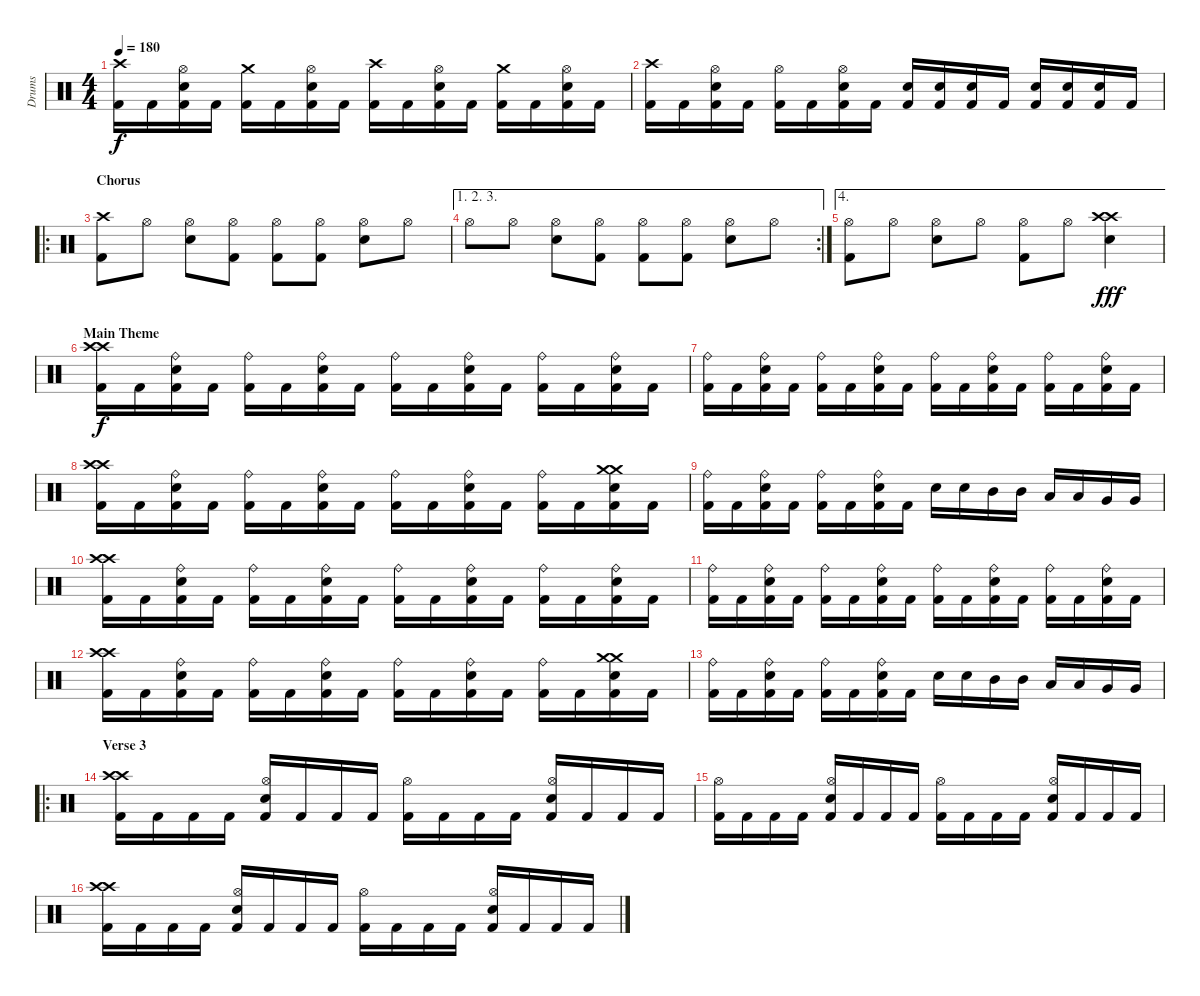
\track ("Drums" "Drums") {instrument percussion}
\staff {score}
\articulation defaults
\ts (4 4)
\tempo 180
\clef neutral
\ks c
("Crash high (hit)" "Kick (hit) 2").16{dy f} "Kick (hit) 2".16 ("Hi-Hat (open)" "Snare (hit) 2" "Kick (hit) 2").16 "Kick (hit) 2".16 ("Crash medium (hit)" "Kick (hit) 2").16 "Kick (hit) 2".16 ("Hi-Hat (open)" "Snare (hit) 2" "Kick (hit) 2").16 "Kick (hit) 2".16 ("Crash high (hit)" "Kick (hit) 2").16 "Kick (hit) 2".16 ("Hi-Hat (open)" "Snare (hit) 2" "Kick (hit) 2").16 "Kick (hit) 2".16 ("Crash medium (hit)" "Kick (hit) 2").16 "Kick (hit) 2".16 ("Hi-Hat (open)" "Snare (hit) 2" "Kick (hit) 2").16 "Kick (hit) 2".16 |
("Crash high (hit)" "Kick (hit) 2").16 "Kick (hit) 2".16 ("Hi-Hat (open)" "Snare (hit) 2" "Kick (hit) 2").16 "Kick (hit) 2".16 ("Hi-Hat (open)" "Kick (hit) 2").16 "Kick (hit) 2".16 ("Hi-Hat (open)" "Snare (hit) 2" "Kick (hit) 2").16 "Kick (hit) 2".16 ("Snare (hit) 2" "Kick (hit) 2").16 ("Snare (hit) 2" "Kick (hit) 2").16 ("Snare (hit) 2" "Kick (hit) 2").16 "Kick (hit) 2".16 ("Snare (hit) 2" "Kick (hit) 2").16 ("Snare (hit) 2" "Kick (hit) 2").16 ("Snare (hit) 2" "Kick (hit) 2").16 "Kick (hit) 2".16 |
\ro
\section ("" "Chorus")
("Crash high (hit)" "Kick (hit) 2").8 "Hi-Hat (open)".8 ("Hi-Hat (open)" "Snare (hit) 2").8 ("Hi-Hat (open)" "Kick (hit) 2").8 ("Hi-Hat (open)" "Kick (hit) 2").8 ("Hi-Hat (open)" "Kick (hit) 2").8 ("Hi-Hat (open)" "Snare (hit) 2").8 "Hi-Hat (open)".8 |
\ae (1 2 3)
\rc 2 "Hi-Hat (open)".8 "Hi-Hat (open)".8
("Hi-Hat (open)" "Snare (hit) 2").8 ("Hi-Hat (open)" "Kick (hit) 2").8 ("Hi-Hat (open)" "Kick (hit) 2").8 ("Hi-Hat (open)" "Kick (hit) 2").8 ("Hi-Hat (open)" "Snare (hit) 2").8 "Hi-Hat (open)".8 |
\ae 4
("Hi-Hat (open)" "Kick (hit) 2").8 "Hi-Hat (open)".8 ("Hi-Hat (open)" "Snare (hit) 2").8 "Hi-Hat (open)".8 ("Hi-Hat (open)" "Kick (hit) 2").8 "Hi-Hat (open)".8 ("Crash high (hit)" "Crash high (hit)" "Snare (hit) 2").4{dy fff} |
\section ("" "Main Theme")
("Crash high (hit)" "Crash high (hit)" "Kick (hit) 2").16{dy f} "Kick (hit) 2".16 ("Ride (bell)" "Snare (hit) 2" "Kick (hit) 2").16 "Kick (hit) 2".16 ("Ride (bell)" "Kick (hit) 2").16 "Kick (hit) 2".16 ("Ride (bell)" "Snare (hit) 2" "Kick (hit) 2").16 "Kick (hit) 2".16 ("Ride (bell)" "Kick (hit) 2").16 "Kick (hit) 2".16 ("Ride (bell)" "Snare (hit) 2" "Kick (hit) 2").16 "Kick (hit) 2".16 ("Ride (bell)" "Kick (hit) 2").16 "Kick (hit) 2".16 ("Ride (bell)" "Snare (hit) 2" "Kick (hit) 2").16 "Kick (hit) 2".16 |
("Ride (bell)" "Kick (hit) 2").16 "Kick (hit) 2".16 ("Ride (bell)" "Snare (hit) 2" "Kick (hit) 2").16 "Kick (hit) 2".16 ("Ride (bell)" "Kick (hit) 2").16 "Kick (hit) 2".16 ("Ride (bell)" "Snare (hit) 2" "Kick (hit) 2").16 "Kick (hit) 2".16 ("Ride (bell)" "Kick (hit) 2").16 "Kick (hit) 2".16 ("Ride (bell)" "Snare (hit) 2" "Kick (hit) 2").16 "Kick (hit) 2".16 ("Ride (bell)" "Kick (hit) 2").16 "Kick (hit) 2".16 ("Ride (bell)" "Snare (hit) 2" "Kick (hit) 2").16 "Kick (hit) 2".16 |
("Crash high (hit)" "Crash high (hit)" "Kick (hit) 2").16 "Kick (hit) 2".16 ("Ride (bell)" "Snare (hit) 2" "Kick (hit) 2").16 "Kick (hit) 2".16 ("Ride (bell)" "Kick (hit) 2").16 "Kick (hit) 2".16 ("Ride (bell)" "Snare (hit) 2" "Kick (hit) 2").16 "Kick (hit) 2".16 ("Ride (bell)" "Kick (hit) 2").16 "Kick (hit) 2".16 ("Ride (bell)" "Snare (hit) 2" "Kick (hit) 2").16 "Kick (hit) 2".16 ("Ride (bell)" "Kick (hit) 2").16 "Kick (hit) 2".16 ("Crash medium (hit)" "Crash medium (hit)" "Snare (hit) 2" "Kick (hit) 2").16 "Kick (hit) 2".16 |
("Ride (bell)" "Kick (hit) 2").16 "Kick (hit) 2".16 ("Ride (bell)" "Snare (hit) 2" "Kick (hit) 2").16 "Kick (hit) 2".16 ("Ride (bell)" "Kick (hit) 2").16 "Kick (hit) 2".16 ("Ride (bell)" "Snare (hit) 2" "Kick (hit) 2").16 "Kick (hit) 2".16 "Snare (hit) 2".16 "Snare (hit) 2".16 "Mid Tom (hit)".16 "Mid Tom (hit)".16 "Low Tom (hit)".16 "Low Tom (hit)".16 "Very Low Tom (hit)".16 "Very Low Tom (hit)".16 |
("Crash high (hit)" "Crash high (hit)" "Kick (hit) 2").16 "Kick (hit) 2".16 ("Ride (bell)" "Snare (hit) 2" "Kick (hit) 2").16 "Kick (hit) 2".16 ("Ride (bell)" "Kick (hit) 2").16 "Kick (hit) 2".16 ("Ride (bell)" "Snare (hit) 2" "Kick (hit) 2").16 "Kick (hit) 2".16 ("Ride (bell)" "Kick (hit) 2").16 "Kick (hit) 2".16 ("Ride (bell)" "Snare (hit) 2" "Kick (hit) 2").16 "Kick (hit) 2".16 ("Ride (bell)" "Kick (hit) 2").16 "Kick (hit) 2".16 ("Ride (bell)" "Snare (hit) 2" "Kick (hit) 2").16 "Kick (hit) 2".16 |
("Ride (bell)" "Kick (hit) 2").16 "Kick (hit) 2".16 ("Ride (bell)" "Snare (hit) 2" "Kick (hit) 2").16 "Kick (hit) 2".16 ("Ride (bell)" "Kick (hit) 2").16 "Kick (hit) 2".16 ("Ride (bell)" "Snare (hit) 2" "Kick (hit) 2").16 "Kick (hit) 2".16 ("Ride (bell)" "Kick (hit) 2").16 "Kick (hit) 2".16 ("Ride (bell)" "Snare (hit) 2" "Kick (hit) 2").16 "Kick (hit) 2".16 ("Ride (bell)" "Kick (hit) 2").16 "Kick (hit) 2".16 ("Ride (bell)" "Snare (hit) 2" "Kick (hit) 2").16 "Kick (hit) 2".16 |
("Crash high (hit)" "Crash high (hit)" "Kick (hit) 2").16 "Kick (hit) 2".16 ("Ride (bell)" "Snare (hit) 2" "Kick (hit) 2").16 "Kick (hit) 2".16 ("Ride (bell)" "Kick (hit) 2").16 "Kick (hit) 2".16 ("Ride (bell)" "Snare (hit) 2" "Kick (hit) 2").16 "Kick (hit) 2".16 ("Ride (bell)" "Kick (hit) 2").16 "Kick (hit) 2".16 ("Ride (bell)" "Snare (hit) 2" "Kick (hit) 2").16 "Kick (hit) 2".16 ("Ride (bell)" "Kick (hit) 2").16 "Kick (hit) 2".16 ("Crash medium (hit)" "Crash medium (hit)" "Snare (hit) 2" "Kick (hit) 2").16 "Kick (hit) 2".16 |
("Ride (bell)" "Kick (hit) 2").16 "Kick (hit) 2".16 ("Ride (bell)" "Snare (hit) 2" "Kick (hit) 2").16 "Kick (hit) 2".16 ("Ride (bell)" "Kick (hit) 2").16 "Kick (hit) 2".16 ("Ride (bell)" "Snare (hit) 2" "Kick (hit) 2").16 "Kick (hit) 2".16 "Snare (hit) 2".16 "Snare (hit) 2".16 "Mid Tom (hit)".16 "Mid Tom (hit)".16 "Low Tom (hit)".16 "Low Tom (hit)".16 "Very Low Tom (hit)".16 "Very Low Tom (hit)".16 |
\ro
\section ("" "Verse 3")
("Crash high (hit)" "Crash high (hit)" "Kick (hit) 2").16 "Kick (hit) 2".16 "Kick (hit) 2".16 "Kick (hit) 2".16 ("Hi-Hat (open)" "Snare (hit) 2" "Kick (hit) 2").16 "Kick (hit) 2".16 "Kick (hit) 2".16 "Kick (hit) 2".16 ("Hi-Hat (open)" "Kick (hit) 2").16 "Kick (hit) 2".16 "Kick (hit) 2".16 "Kick (hit) 2".16 ("Hi-Hat (open)" "Snare (hit) 2" "Kick (hit) 2").16 "Kick (hit) 2".16 "Kick (hit) 2".16 "Kick (hit) 2".16 |
("Hi-Hat (open)" "Kick (hit) 2").16 "Kick (hit) 2".16 "Kick (hit) 2".16 "Kick (hit) 2".16 ("Hi-Hat (open)" "Snare (hit) 2" "Kick (hit) 2").16 "Kick (hit) 2".16 "Kick (hit) 2".16 "Kick (hit) 2".16 ("Hi-Hat (open)" "Kick (hit) 2").16 "Kick (hit) 2".16 "Kick (hit) 2".16 "Kick (hit) 2".16 ("Hi-Hat (open)" "Snare (hit) 2" "Kick (hit) 2").16 "Kick (hit) 2".16 "Kick (hit) 2".16 "Kick (hit) 2".16 |
("Crash high (hit)" "Crash high (hit)" "Kick (hit) 2").16 "Kick (hit) 2".16 "Kick (hit) 2".16 "Kick (hit) 2".16 ("Hi-Hat (open)" "Snare (hit) 2" "Kick (hit) 2").16 "Kick (hit) 2".16 "Kick (hit) 2".16 "Kick (hit) 2".16 ("Hi-Hat (open)" "Kick (hit) 2").16 "Kick (hit) 2".16 "Kick (hit) 2".16 "Kick (hit) 2".16 ("Hi-Hat (open)" "Snare (hit) 2" "Kick (hit) 2").16 "Kick (hit) 2".16 "Kick (hit) 2".16 "Kick (hit) 2".16
